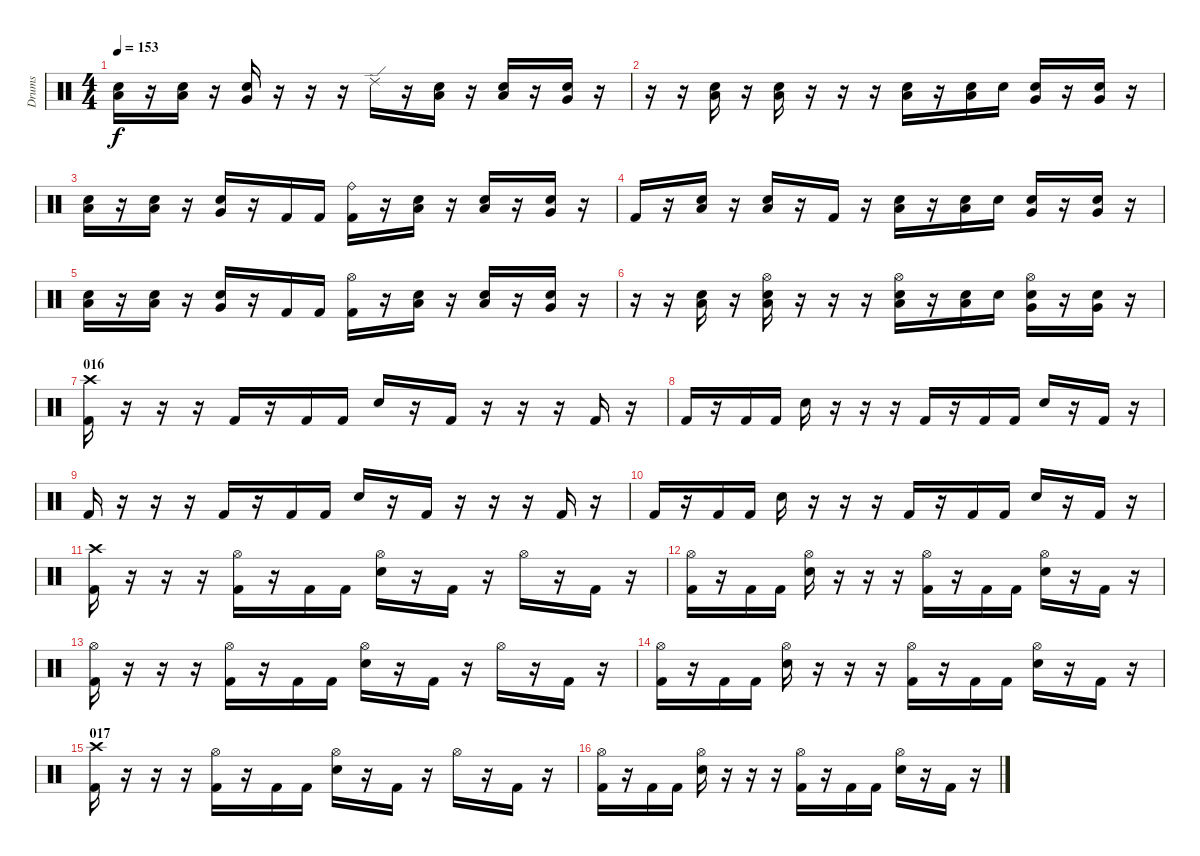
\track ("Drums" "Drums") {instrument percussion}
\staff {score}
\articulation defaults
\ts (4 4)
\tempo 153
\clef neutral
\ks c
("Low Tom (hit)" "Electric Snare (hit)").16{dy f} r.16 ("Low Tom (hit)" "Electric Snare (hit)").16 r.16 ("Very Low Tom (hit)" "Electric Snare (hit)").16 r.16 r.16 r.16 "Ride (edge) 2".16 r.16 ("Low Tom (hit)" "Electric Snare (hit)").16 r.16 ("Low Tom (hit)" "Electric Snare (hit)").16 r.16 ("Very Low Tom (hit)" "Electric Snare (hit)").16 r.16 |
r.16 r.16 ("Low Tom (hit)" "Electric Snare (hit)").16 r.16 ("Low Tom (hit)" "Electric Snare (hit)").16 r.16 r.16 r.16 ("Low Tom (hit)" "Electric Snare (hit)").16 r.16 ("Low Tom (hit)" "Electric Snare (hit)").16 "Electric Snare (hit)".16 ("Very Low Tom (hit)" "Electric Snare (hit)").16 r.16 ("Very Low Tom (hit)" "Electric Snare (hit)").16 r.16 |
("Low Tom (hit)" "Electric Snare (hit)").16 r.16 ("Low Tom (hit)" "Electric Snare (hit)").16 r.16 ("Very Low Tom (hit)" "Electric Snare (hit)").16 r.16 "Kick (hit) 2".16 "Kick (hit) 2".16 ("Ride (bell)" "Kick (hit) 2").16 r.16 ("Low Tom (hit)" "Electric Snare (hit)").16 r.16 ("Low Tom (hit)" "Electric Snare (hit)").16 r.16 ("Very Low Tom (hit)" "Electric Snare (hit)").16 r.16 |
"Kick (hit) 2".16 r.16 ("Low Tom (hit)" "Electric Snare (hit)").16 r.16 ("Low Tom (hit)" "Electric Snare (hit)").16 r.16 "Kick (hit) 2".16 r.16 ("Low Tom (hit)" "Electric Snare (hit)").16 r.16 ("Low Tom (hit)" "Electric Snare (hit)").16 "Electric Snare (hit)".16 ("Very Low Tom (hit)" "Electric Snare (hit)").16 r.16 ("Very Low Tom (hit)" "Electric Snare (hit)").16 r.16 |
("Low Tom (hit)" "Electric Snare (hit)").16 r.16 ("Low Tom (hit)" "Electric Snare (hit)").16 r.16 ("Very Low Tom (hit)" "Electric Snare (hit)").16 r.16 "Kick (hit) 2".16 "Kick (hit) 2".16 ("Hi-Hat (open)" "Kick (hit) 2").16 r.16 ("Low Tom (hit)" "Electric Snare (hit)").16 r.16 ("Low Tom (hit)" "Electric Snare (hit)").16 r.16 ("Very Low Tom (hit)" "Electric Snare (hit)").16 r.16 |
r.16 r.16 ("Low Tom (hit)" "Electric Snare (hit)").16 r.16 ("Hi-Hat (open)" "Low Tom (hit)" "Electric Snare (hit)").16 r.16 r.16 r.16 ("Hi-Hat (open)" "Low Tom (hit)" "Electric Snare (hit)").16 r.16 ("Low Tom (hit)" "Electric Snare (hit)").16 "Electric Snare (hit)".16 ("Hi-Hat (open)" "Very Low Tom (hit)" "Electric Snare (hit)").16 r.16 ("Very Low Tom (hit)" "Electric Snare (hit)").16 r.16 |
\section ("" "016")
("Crash high (hit)" "Kick (hit) 2").16 r.16 r.16 r.16 "Kick (hit) 2".16 r.16 "Kick (hit) 2".16 "Kick (hit) 2".16 "Electric Snare (hit)".16 r.16 "Kick (hit) 2".16 r.16 r.16 r.16 "Kick (hit) 2".16 r.16 |
"Kick (hit) 2".16 r.16 "Kick (hit) 2".16 "Kick (hit) 2".16 "Electric Snare (hit)".16 r.16 r.16 r.16 "Kick (hit) 2".16 r.16 "Kick (hit) 2".16 "Kick (hit) 2".16 "Electric Snare (hit)".16 r.16 "Kick (hit) 2".16 r.16 |
"Kick (hit) 2".16 r.16 r.16 r.16 "Kick (hit) 2".16 r.16 "Kick (hit) 2".16 "Kick (hit) 2".16 "Electric Snare (hit)".16 r.16 "Kick (hit) 2".16 r.16 r.16 r.16 "Kick (hit) 2".16 r.16 |
"Kick (hit) 2".16 r.16 "Kick (hit) 2".16 "Kick (hit) 2".16 "Electric Snare (hit)".16 r.16 r.16 r.16 "Kick (hit) 2".16 r.16 "Kick (hit) 2".16 "Kick (hit) 2".16 "Electric Snare (hit)".16 r.16 "Kick (hit) 2".16 r.16 |
("Crash high (hit)" "Kick (hit) 2").16 r.16 r.16 r.16 ("Hi-Hat (open)" "Kick (hit) 2").16 r.16 "Kick (hit) 2".16 "Kick (hit) 2".16 ("Hi-Hat (open)" "Electric Snare (hit)").16 r.16 "Kick (hit) 2".16 r.16 "Hi-Hat (open)".16 r.16 "Kick (hit) 2".16 r.16 |
("Hi-Hat (open)" "Kick (hit) 2").16 r.16 "Kick (hit) 2".16 "Kick (hit) 2".16 ("Hi-Hat (open)" "Electric Snare (hit)").16 r.16 r.16 r.16 ("Hi-Hat (open)" "Kick (hit) 2").16 r.16 "Kick (hit) 2".16 "Kick (hit) 2".16 ("Hi-Hat (open)" "Electric Snare (hit)").16 r.16 "Kick (hit) 2".16 r.16 |
("Hi-Hat (open)" "Kick (hit) 2").16 r.16 r.16 r.16 ("Hi-Hat (open)" "Kick (hit) 2").16 r.16 "Kick (hit) 2".16 "Kick (hit) 2".16 ("Hi-Hat (open)" "Electric Snare (hit)").16 r.16 "Kick (hit) 2".16 r.16 "Hi-Hat (open)".16 r.16 "Kick (hit) 2".16 r.16 |
("Hi-Hat (open)" "Kick (hit) 2").16 r.16 "Kick (hit) 2".16 "Kick (hit) 2".16 ("Hi-Hat (open)" "Electric Snare (hit)").16 r.16 r.16 r.16 ("Hi-Hat (open)" "Kick (hit) 2").16 r.16 "Kick (hit) 2".16 "Kick (hit) 2".16 ("Hi-Hat (open)" "Electric Snare (hit)").16 r.16 "Kick (hit) 2".16 r.16 |
\section ("" "017")
("Crash high (hit)" "Kick (hit) 2").16 r.16 r.16 r.16 ("Hi-Hat (open)" "Kick (hit) 2").16 r.16 "Kick (hit) 2".16 "Kick (hit) 2".16 ("Hi-Hat (open)" "Electric Snare (hit)").16 r.16 "Kick (hit) 2".16 r.16 "Hi-Hat (open)".16 r.16 "Kick (hit) 2".16 r.16 |
("Hi-Hat (open)" "Kick (hit) 2").16 r.16 "Kick (hit) 2".16 "Kick (hit) 2".16 ("Hi-Hat (open)" "Electric Snare (hit)").16 r.16 r.16 r.16 ("Hi-Hat (open)" "Kick (hit) 2").16 r.16 "Kick (hit) 2".16 "Kick (hit) 2".16 ("Hi-Hat (open)" "Electric Snare (hit)").16 r.16 "Kick (hit) 2".16 r.16
